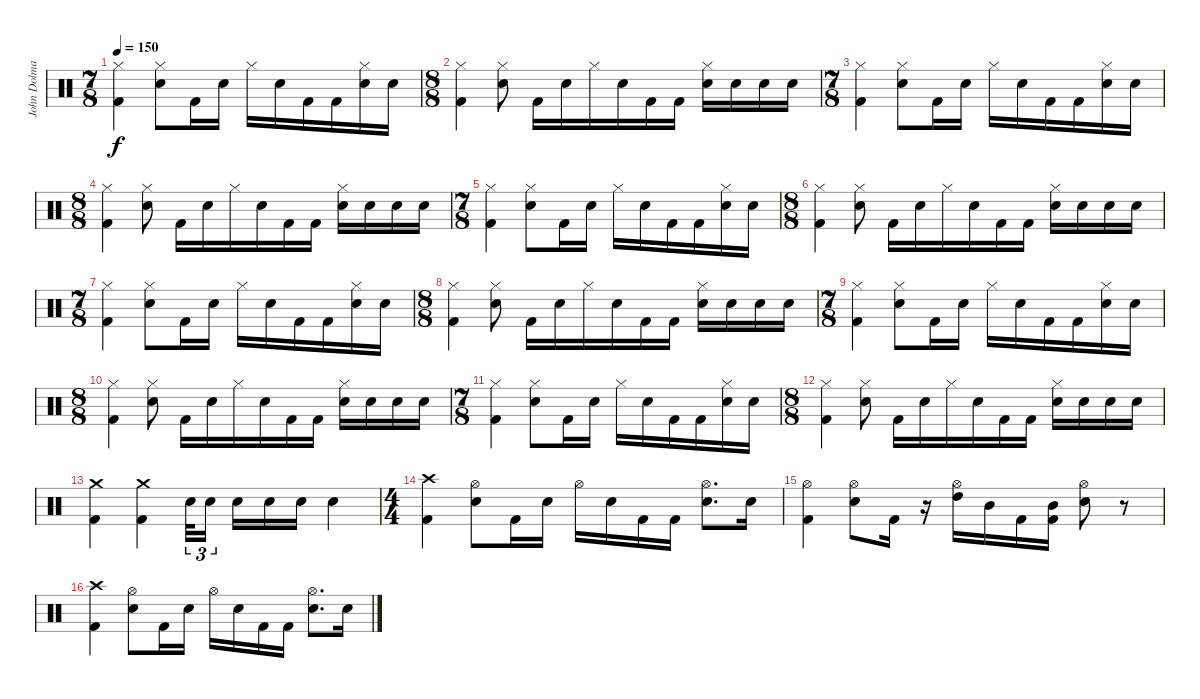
\track ("John Dolmayan" "John Dolma") {instrument percussion}
\staff {score}
\articulation defaults
\ts (7 8)
\tempo 150
\clef neutral
\ks c
("Hi-Hat (closed)" "Kick (hit) 2").4{dy f} ("Hi-Hat (closed)" "Electric Snare (hit)").8 "Kick (hit) 2".16 "Electric Snare (hit)".16 "Hi-Hat (closed)".16 "Electric Snare (hit)".16 "Kick (hit) 2".16 "Kick (hit) 2".16 ("Hi-Hat (closed)" "Electric Snare (hit)").16 "Electric Snare (hit)".16 |
\ts (8 8)
("Hi-Hat (closed)" "Kick (hit) 2").4 ("Hi-Hat (closed)" "Electric Snare (hit)").8 "Kick (hit) 2".16 "Electric Snare (hit)".16 "Hi-Hat (closed)".16 "Electric Snare (hit)".16 "Kick (hit) 2".16 "Kick (hit) 2".16 ("Hi-Hat (closed)" "Electric Snare (hit)").16 "Electric Snare (hit)".16 "Electric Snare (hit)".16 "Electric Snare (hit)".16 |
\ts (7 8)
("Hi-Hat (closed)" "Kick (hit) 2").4 ("Hi-Hat (closed)" "Electric Snare (hit)").8 "Kick (hit) 2".16 "Electric Snare (hit)".16 "Hi-Hat (closed)".16 "Electric Snare (hit)".16 "Kick (hit) 2".16 "Kick (hit) 2".16 ("Hi-Hat (closed)" "Electric Snare (hit)").16 "Electric Snare (hit)".16 |
\ts (8 8)
("Hi-Hat (closed)" "Kick (hit) 2").4 ("Hi-Hat (closed)" "Electric Snare (hit)").8 "Kick (hit) 2".16 "Electric Snare (hit)".16 "Hi-Hat (closed)".16 "Electric Snare (hit)".16 "Kick (hit) 2".16 "Kick (hit) 2".16 ("Hi-Hat (closed)" "Electric Snare (hit)").16 "Electric Snare (hit)".16 "Electric Snare (hit)".16 "Electric Snare (hit)".16 |
\ts (7 8)
("Hi-Hat (closed)" "Kick (hit) 2").4 ("Hi-Hat (closed)" "Electric Snare (hit)").8 "Kick (hit) 2".16 "Electric Snare (hit)".16 "Hi-Hat (closed)".16 "Electric Snare (hit)".16 "Kick (hit) 2".16 "Kick (hit) 2".16 ("Hi-Hat (closed)" "Electric Snare (hit)").16 "Electric Snare (hit)".16 |
\ts (8 8)
("Hi-Hat (closed)" "Kick (hit) 2").4 ("Hi-Hat (closed)" "Electric Snare (hit)").8 "Kick (hit) 2".16 "Electric Snare (hit)".16 "Hi-Hat (closed)".16 "Electric Snare (hit)".16 "Kick (hit) 2".16 "Kick (hit) 2".16 ("Hi-Hat (closed)" "Electric Snare (hit)").16 "Electric Snare (hit)".16 "Electric Snare (hit)".16 "Electric Snare (hit)".16 |
\ts (7 8)
("Hi-Hat (closed)" "Kick (hit) 2").4 ("Hi-Hat (closed)" "Electric Snare (hit)").8 "Kick (hit) 2".16 "Electric Snare (hit)".16 "Hi-Hat (closed)".16 "Electric Snare (hit)".16 "Kick (hit) 2".16 "Kick (hit) 2".16 ("Hi-Hat (closed)" "Electric Snare (hit)").16 "Electric Snare (hit)".16 |
\ts (8 8)
("Hi-Hat (closed)" "Kick (hit) 2").4 ("Hi-Hat (closed)" "Electric Snare (hit)").8 "Kick (hit) 2".16 "Electric Snare (hit)".16 "Hi-Hat (closed)".16 "Electric Snare (hit)".16 "Kick (hit) 2".16 "Kick (hit) 2".16 ("Hi-Hat (closed)" "Electric Snare (hit)").16 "Electric Snare (hit)".16 "Electric Snare (hit)".16 "Electric Snare (hit)".16 |
\ts (7 8)
("Hi-Hat (closed)" "Kick (hit) 2").4 ("Hi-Hat (closed)" "Electric Snare (hit)").8 "Kick (hit) 2".16 "Electric Snare (hit)".16 "Hi-Hat (closed)".16 "Electric Snare (hit)".16 "Kick (hit) 2".16 "Kick (hit) 2".16 ("Hi-Hat (closed)" "Electric Snare (hit)").16 "Electric Snare (hit)".16 |
\ts (8 8)
("Hi-Hat (closed)" "Kick (hit) 2").4 ("Hi-Hat (closed)" "Electric Snare (hit)").8 "Kick (hit) 2".16 "Electric Snare (hit)".16 "Hi-Hat (closed)".16 "Electric Snare (hit)".16 "Kick (hit) 2".16 "Kick (hit) 2".16 ("Hi-Hat (closed)" "Electric Snare (hit)").16 "Electric Snare (hit)".16 "Electric Snare (hit)".16 "Electric Snare (hit)".16 |
\ts (7 8)
("Hi-Hat (closed)" "Kick (hit) 2").4 ("Hi-Hat (closed)" "Electric Snare (hit)").8 "Kick (hit) 2".16 "Electric Snare (hit)".16 "Hi-Hat (closed)".16 "Electric Snare (hit)".16 "Kick (hit) 2".16 "Kick (hit) 2".16 ("Hi-Hat (closed)" "Electric Snare (hit)").16 "Electric Snare (hit)".16 |
\ts (8 8)
("Hi-Hat (closed)" "Kick (hit) 2").4 ("Hi-Hat (closed)" "Electric Snare (hit)").8 "Kick (hit) 2".16 "Electric Snare (hit)".16 "Hi-Hat (closed)".16 "Electric Snare (hit)".16 "Kick (hit) 2".16 "Kick (hit) 2".16 ("Hi-Hat (closed)" "Electric Snare (hit)").16 "Electric Snare (hit)".16 "Electric Snare (hit)".16 "Electric Snare (hit)".16 |
("Crash medium (hit)" "Kick (hit) 2").4 ("Crash medium (hit)" "Kick (hit) 2").4 "Electric Snare (hit)".32{tu (3 2)} "Electric Snare (hit)".16{tu (3 2) beam splitsecondary} "Electric Snare (hit)".16 "Electric Snare (hit)".16 "Electric Snare (hit)".16 "Electric Snare (hit)".4 |
\ts (4 4)
("Crash high (hit)" "Kick (hit) 2").4 ("Hi-Hat (open)" "Electric Snare (hit)").8 "Kick (hit) 2".16 "Electric Snare (hit)".16 "Hi-Hat (open)".16 "Electric Snare (hit)".16 "Kick (hit) 2".16 "Kick (hit) 2".16 ("Hi-Hat (open)" "Electric Snare (hit)").8{d} "Electric Snare (hit)".16 |
("Hi-Hat (open)" "Kick (hit) 2").4 ("Hi-Hat (open)" "Electric Snare (hit)").8 "Kick (hit) 2".16 r.16 ("Hi-Hat (open)" "High Tom (hit)").16 "Mid Tom (hit)".16 "Kick (hit) 2".16 ("Mid Tom (hit)" "Kick (hit) 2").16 ("Hi-Hat (open)" "Electric Snare (hit)").8 r.8 |
("Crash high (hit)" "Kick (hit) 2").4 ("Hi-Hat (open)" "Electric Snare (hit)").8 "Kick (hit) 2".16 "Electric Snare (hit)".16 "Hi-Hat (open)".16 "Electric Snare (hit)".16 "Kick (hit) 2".16 "Kick (hit) 2".16 ("Hi-Hat (open)" "Electric Snare (hit)").8{d} "Electric Snare (hit)".16
